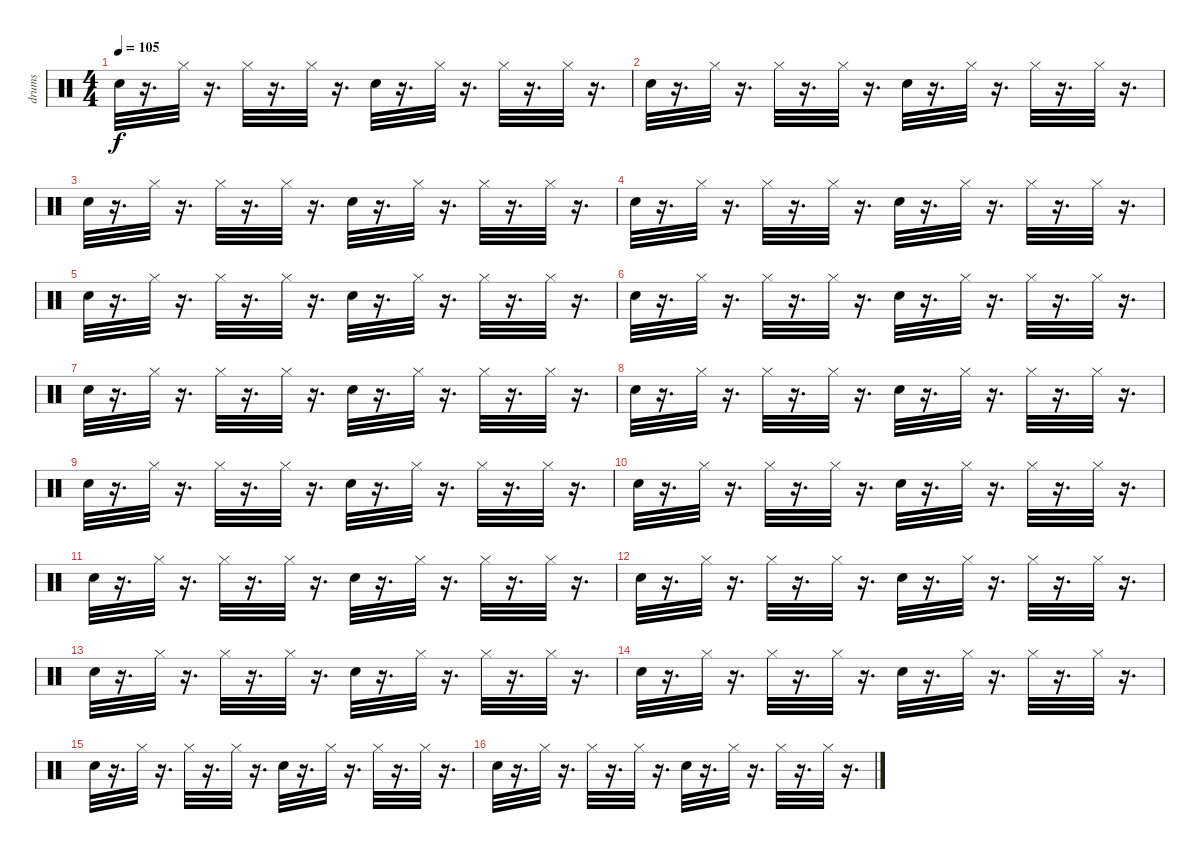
\track ("drums" "drums") {instrument percussion}
\staff {score}
\articulation defaults
\ts (4 4)
\tempo 105
\clef neutral
\ks c "Snare (hit) 2".32{dy f}
r.16{d} "Hi-Hat (closed)".32 r.16{d} "Hi-Hat (closed)".32 r.16{d} "Hi-Hat (closed)".32 r.16{d} "Snare (hit) 2".32 r.16{d} "Hi-Hat (closed)".32 r.16{d} "Hi-Hat (closed)".32 r.16{d} "Hi-Hat (closed)".32 r.16{d} |
"Snare (hit) 2".32 r.16{d} "Hi-Hat (closed)".32 r.16{d} "Hi-Hat (closed)".32 r.16{d} "Hi-Hat (closed)".32 r.16{d} "Snare (hit) 2".32 r.16{d} "Hi-Hat (closed)".32 r.16{d} "Hi-Hat (closed)".32 r.16{d} "Hi-Hat (closed)".32 r.16{d} |
"Snare (hit) 2".32 r.16{d} "Hi-Hat (closed)".32 r.16{d} "Hi-Hat (closed)".32 r.16{d} "Hi-Hat (closed)".32 r.16{d} "Snare (hit) 2".32 r.16{d} "Hi-Hat (closed)".32 r.16{d} "Hi-Hat (closed)".32 r.16{d} "Hi-Hat (closed)".32 r.16{d} |
"Snare (hit) 2".32 r.16{d} "Hi-Hat (closed)".32 r.16{d} "Hi-Hat (closed)".32 r.16{d} "Hi-Hat (closed)".32 r.16{d} "Snare (hit) 2".32 r.16{d} "Hi-Hat (closed)".32 r.16{d} "Hi-Hat (closed)".32 r.16{d} "Hi-Hat (closed)".32 r.16{d} |
"Snare (hit) 2".32 r.16{d} "Hi-Hat (closed)".32 r.16{d} "Hi-Hat (closed)".32 r.16{d} "Hi-Hat (closed)".32 r.16{d} "Snare (hit) 2".32 r.16{d} "Hi-Hat (closed)".32 r.16{d} "Hi-Hat (closed)".32 r.16{d} "Hi-Hat (closed)".32 r.16{d} |
"Snare (hit) 2".32 r.16{d} "Hi-Hat (closed)".32 r.16{d} "Hi-Hat (closed)".32 r.16{d} "Hi-Hat (closed)".32 r.16{d} "Snare (hit) 2".32 r.16{d} "Hi-Hat (closed)".32 r.16{d} "Hi-Hat (closed)".32 r.16{d} "Hi-Hat (closed)".32 r.16{d} |
"Snare (hit) 2".32 r.16{d} "Hi-Hat (closed)".32 r.16{d} "Hi-Hat (closed)".32 r.16{d} "Hi-Hat (closed)".32 r.16{d} "Snare (hit) 2".32 r.16{d} "Hi-Hat (closed)".32 r.16{d} "Hi-Hat (closed)".32 r.16{d} "Hi-Hat (closed)".32 r.16{d} |
"Snare (hit) 2".32 r.16{d} "Hi-Hat (closed)".32 r.16{d} "Hi-Hat (closed)".32 r.16{d} "Hi-Hat (closed)".32 r.16{d} "Snare (hit) 2".32 r.16{d} "Hi-Hat (closed)".32 r.16{d} "Hi-Hat (closed)".32 r.16{d} "Hi-Hat (closed)".32 r.16{d} |
"Snare (hit) 2".32 r.16{d} "Hi-Hat (closed)".32 r.16{d} "Hi-Hat (closed)".32 r.16{d} "Hi-Hat (closed)".32 r.16{d} "Snare (hit) 2".32 r.16{d} "Hi-Hat (closed)".32 r.16{d} "Hi-Hat (closed)".32 r.16{d} "Hi-Hat (closed)".32 r.16{d} |
"Snare (hit) 2".32 r.16{d} "Hi-Hat (closed)".32 r.16{d} "Hi-Hat (closed)".32 r.16{d} "Hi-Hat (closed)".32 r.16{d} "Snare (hit) 2".32 r.16{d} "Hi-Hat (closed)".32 r.16{d} "Hi-Hat (closed)".32 r.16{d} "Hi-Hat (closed)".32 r.16{d} |
"Snare (hit) 2".32 r.16{d} "Hi-Hat (closed)".32 r.16{d} "Hi-Hat (closed)".32 r.16{d} "Hi-Hat (closed)".32 r.16{d} "Snare (hit) 2".32 r.16{d} "Hi-Hat (closed)".32 r.16{d} "Hi-Hat (closed)".32 r.16{d} "Hi-Hat (closed)".32 r.16{d} |
"Snare (hit) 2".32 r.16{d} "Hi-Hat (closed)".32 r.16{d} "Hi-Hat (closed)".32 r.16{d} "Hi-Hat (closed)".32 r.16{d} "Snare (hit) 2".32 r.16{d} "Hi-Hat (closed)".32 r.16{d} "Hi-Hat (closed)".32 r.16{d} "Hi-Hat (closed)".32 r.16{d} |
"Snare (hit) 2".32 r.16{d} "Hi-Hat (closed)".32 r.16{d} "Hi-Hat (closed)".32 r.16{d} "Hi-Hat (closed)".32 r.16{d} "Snare (hit) 2".32 r.16{d} "Hi-Hat (closed)".32 r.16{d} "Hi-Hat (closed)".32 r.16{d} "Hi-Hat (closed)".32 r.16{d} |
"Snare (hit) 2".32 r.16{d} "Hi-Hat (closed)".32 r.16{d} "Hi-Hat (closed)".32 r.16{d} "Hi-Hat (closed)".32 r.16{d} "Snare (hit) 2".32 r.16{d} "Hi-Hat (closed)".32 r.16{d} "Hi-Hat (closed)".32 r.16{d} "Hi-Hat (closed)".32 r.16{d} |
"Snare (hit) 2".32 r.16{d} "Hi-Hat (closed)".32 r.16{d} "Hi-Hat (closed)".32 r.16{d} "Hi-Hat (closed)".32 r.16{d} "Snare (hit) 2".32 r.16{d} "Hi-Hat (closed)".32 r.16{d} "Hi-Hat (closed)".32 r.16{d} "Hi-Hat (closed)".32 r.16{d} |
"Snare (hit) 2".32 r.16{d} "Hi-Hat (closed)".32 r.16{d} "Hi-Hat (closed)".32 r.16{d} "Hi-Hat (closed)".32 r.16{d} "Snare (hit) 2".32 r.16{d} "Hi-Hat (closed)".32 r.16{d} "Hi-Hat (closed)".32 r.16{d} "Hi-Hat (closed)".32 r.16{d}
